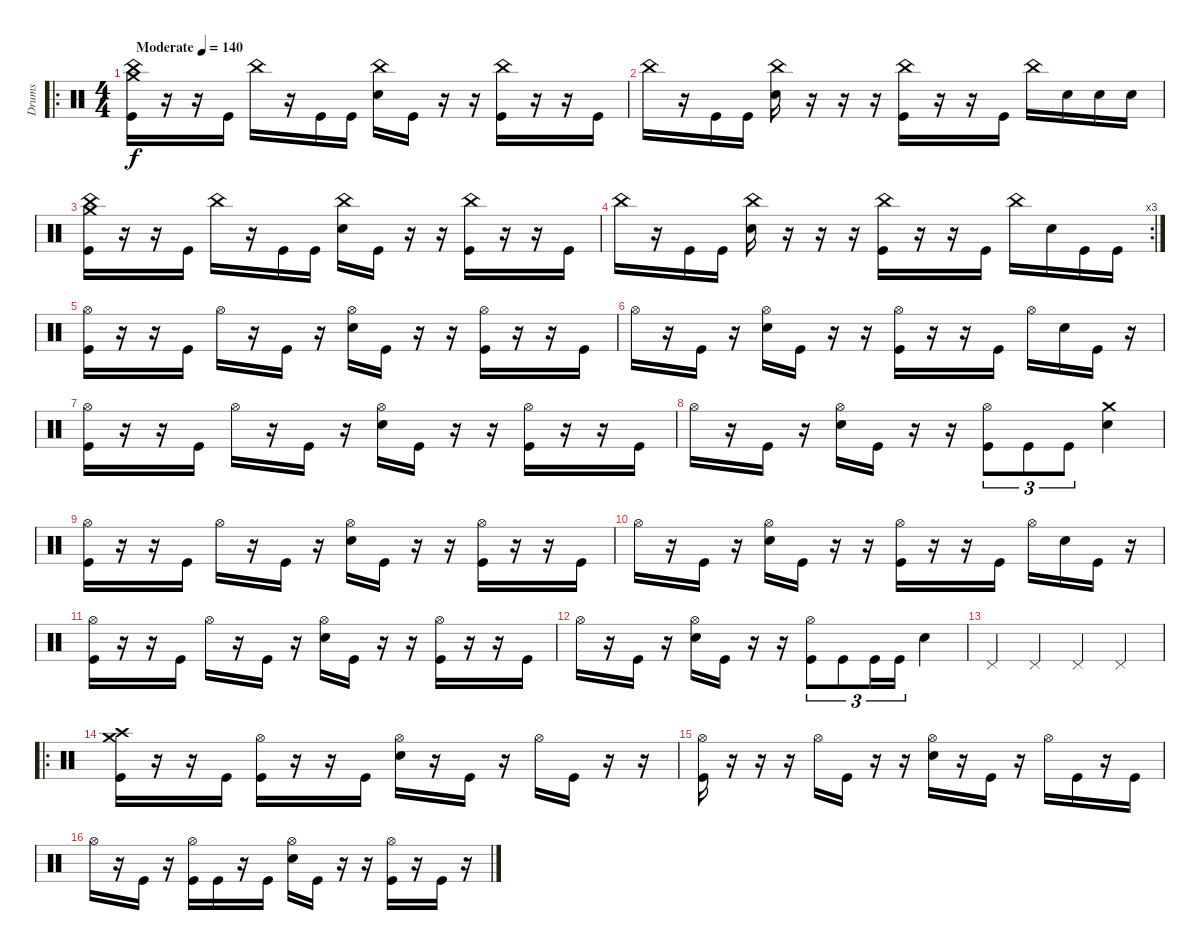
\track ("Drums" "Drums") {instrument percussion}
\staff {score}
\articulation defaults
\ro
\ts (4 4)
\tempo (140 "Moderate")
\clef neutral
\ks c
("Crash medium (hit)" "China (hit)" "Kick (hit)").16{dy f} r.16 r.16 "Kick (hit)".16 "China (hit)".16 r.16 "Kick (hit)".16 "Kick (hit)".16 ("China (hit)" "Snare (hit) 2").16 "Kick (hit)".16 r.16 r.16 ("China (hit)" "Kick (hit)").16 r.16 r.16 "Kick (hit)".16 |
"China (hit)".16 r.16 "Kick (hit)".16 "Kick (hit)".16 ("China (hit)" "Snare (hit) 2").16 r.16 r.16 r.16 ("China (hit)" "Kick (hit)").16 r.16 r.16 "Kick (hit)".16 "China (hit)".16 "Snare (hit) 2".16 "Snare (hit) 2".16 "Snare (hit) 2".16 |
("Crash medium (hit)" "China (hit)" "Kick (hit)").16 r.16 r.16 "Kick (hit)".16 "China (hit)".16 r.16 "Kick (hit)".16 "Kick (hit)".16 ("China (hit)" "Snare (hit) 2").16 "Kick (hit)".16 r.16 r.16 ("China (hit)" "Kick (hit)").16 r.16 r.16 "Kick (hit)".16 |
\rc 3 "China (hit)".16
r.16 "Kick (hit)".16 "Kick (hit)".16 ("China (hit)" "Snare (hit) 2").16 r.16 r.16 r.16 ("China (hit)" "Kick (hit)").16 r.16 r.16 "Kick (hit)".16 "China (hit)".16 "Snare (hit) 2".16 "Kick (hit)".16 "Kick (hit)".16 |
("Hi-Hat (open)" "Kick (hit)").16 r.16 r.16 "Kick (hit)".16 "Hi-Hat (open)".16 r.16 "Kick (hit)".16 r.16 ("Hi-Hat (open)" "Snare (hit) 2").16 "Kick (hit)".16 r.16 r.16 ("Hi-Hat (open)" "Kick (hit)").16 r.16 r.16 "Kick (hit)".16 |
"Hi-Hat (open)".16 r.16 "Kick (hit)".16 r.16 ("Hi-Hat (open)" "Snare (hit) 2").16 "Kick (hit)".16 r.16 r.16 ("Hi-Hat (open)" "Kick (hit)").16 r.16 r.16 "Kick (hit)".16 "Hi-Hat (open)".16 "Snare (hit) 2".16 "Kick (hit)".16 r.16 |
("Hi-Hat (open)" "Kick (hit)").16 r.16 r.16 "Kick (hit)".16 "Hi-Hat (open)".16 r.16 "Kick (hit)".16 r.16 ("Hi-Hat (open)" "Snare (hit) 2").16 "Kick (hit)".16 r.16 r.16 ("Hi-Hat (open)" "Kick (hit)").16 r.16 r.16 "Kick (hit)".16 |
"Hi-Hat (open)".16 r.16 "Kick (hit)".16 r.16 ("Hi-Hat (open)" "Snare (hit) 2").16 "Kick (hit)".16 r.16 r.16 ("Hi-Hat (open)" "Kick (hit)").8{tu (3 2)} "Kick (hit)".8{tu (3 2)} "Kick (hit)".8{tu (3 2)} ("Crash medium (hit)" "Snare (hit) 2").4 |
("Hi-Hat (open)" "Kick (hit)").16 r.16 r.16 "Kick (hit)".16 "Hi-Hat (open)".16 r.16 "Kick (hit)".16 r.16 ("Hi-Hat (open)" "Snare (hit) 2").16 "Kick (hit)".16 r.16 r.16 ("Hi-Hat (open)" "Kick (hit)").16 r.16 r.16 "Kick (hit)".16 |
"Hi-Hat (open)".16 r.16 "Kick (hit)".16 r.16 ("Hi-Hat (open)" "Snare (hit) 2").16 "Kick (hit)".16 r.16 r.16 ("Hi-Hat (open)" "Kick (hit)").16 r.16 r.16 "Kick (hit)".16 "Hi-Hat (open)".16 "Snare (hit) 2".16 "Kick (hit)".16 r.16 |
("Hi-Hat (open)" "Kick (hit)").16 r.16 r.16 "Kick (hit)".16 "Hi-Hat (open)".16 r.16 "Kick (hit)".16 r.16 ("Hi-Hat (open)" "Snare (hit) 2").16 "Kick (hit)".16 r.16 r.16 ("Hi-Hat (open)" "Kick (hit)").16 r.16 r.16 "Kick (hit)".16 |
"Hi-Hat (open)".16 r.16 "Kick (hit)".16 r.16 ("Hi-Hat (open)" "Snare (hit) 2").16 "Kick (hit)".16 r.16 r.16 ("Hi-Hat (open)" "Kick (hit)").8{tu (3 2)} "Kick (hit)".8{tu (3 2)} "Kick (hit)".16{tu (3 2)} "Kick (hit)".16{tu (3 2)} "Snare (hit) 2".4 |
"Pedal Hi-Hat (hit)".4 "Pedal Hi-Hat (hit)".4 "Pedal Hi-Hat (hit)".4 "Pedal Hi-Hat (hit)".4 |
\ro
("Crash medium (hit)" "Crash high (hit)" "Kick (hit)").16 r.16 r.16 "Kick (hit)".16 ("Hi-Hat (open)" "Kick (hit)").16 r.16 r.16 "Kick (hit)".16 ("Hi-Hat (open)" "Snare (hit) 2").16 r.16 "Kick (hit)".16 r.16 "Hi-Hat (open)".16 "Kick (hit)".16 r.16 r.16 |
("Hi-Hat (open)" "Kick (hit)").16 r.16 r.16 r.16 "Hi-Hat (open)".16 "Kick (hit)".16 r.16 r.16 ("Hi-Hat (open)" "Snare (hit) 2").16 r.16 "Kick (hit)".16 r.16 "Hi-Hat (open)".16 "Kick (hit)".16 r.16 "Kick (hit)".16 |
"Hi-Hat (open)".16 r.16 "Kick (hit)".16 r.16 ("Hi-Hat (open)" "Kick (hit)").16 "Kick (hit)".16 r.16 "Kick (hit)".16 ("Hi-Hat (open)" "Snare (hit) 2").16 "Kick (hit)".16 r.16 r.16 ("Hi-Hat (open)" "Kick (hit)").16 r.16 "Kick (hit)".16 r.16
